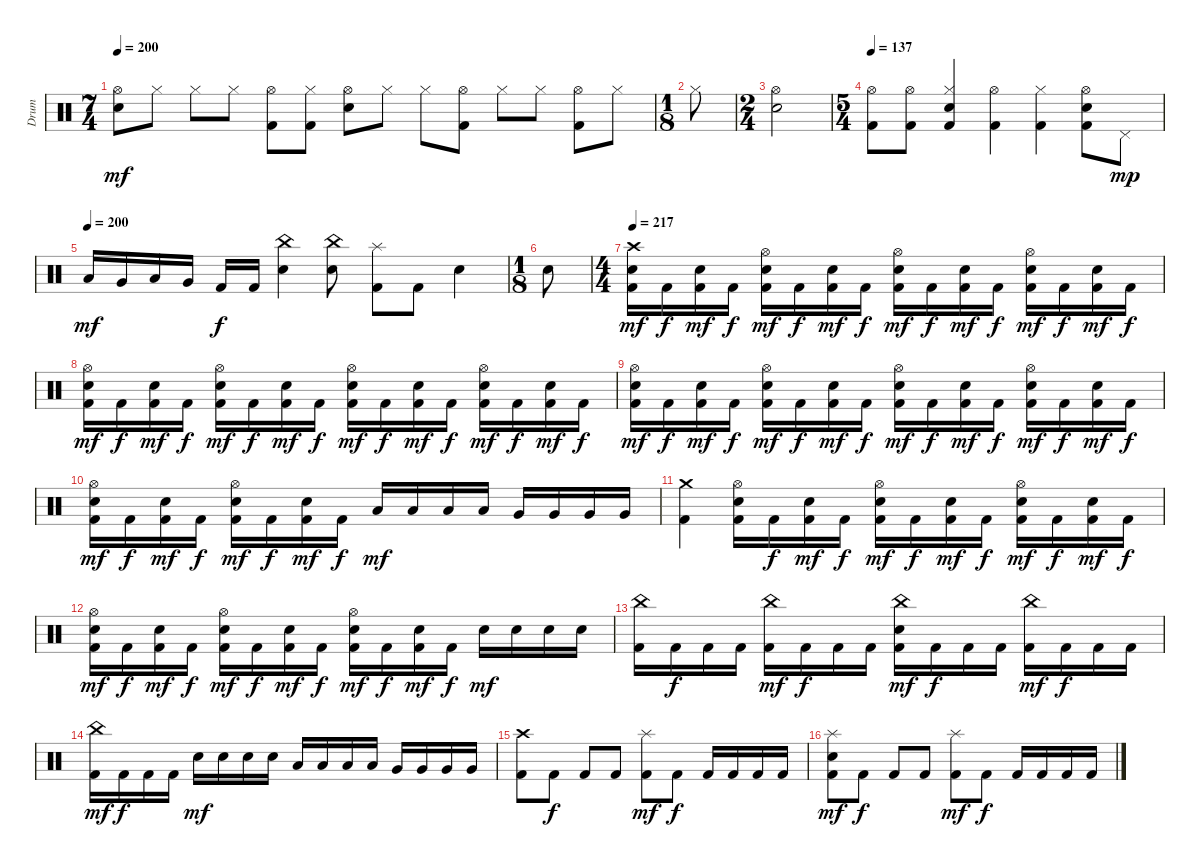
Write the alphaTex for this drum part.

\track ("Drum" "Drum") {instrument percussion}
\staff {score}
\articulation defaults
\ts (7 4)
\tempo 200
\clef neutral
\ks c
("Hi-Hat (open)" "Electric Snare (hit)").8{dy mf} "Hi-Hat (closed)".8 "Hi-Hat (closed)".8 "Hi-Hat (closed)".8 ("Hi-Hat (open)" "Kick (hit) 2").8 ("Hi-Hat (closed)" "Kick (hit) 2").8 ("Hi-Hat (open)" "Electric Snare (hit)").8 "Hi-Hat (closed)".8 "Hi-Hat (closed)".8 ("Hi-Hat (open)" "Kick (hit) 2").8 "Hi-Hat (closed)".8 "Hi-Hat (closed)".8 ("Hi-Hat (open)" "Kick (hit) 2").8 "Hi-Hat (closed)".8 |
\ts (1 8)
"Hi-Hat (closed)".8 |
\ts (2 4)
("Hi-Hat (open)" "Electric Snare (hit)").2 |
\ts (5 4)
\tempo 137
("Hi-Hat (open)" "Kick (hit) 2").8 ("Hi-Hat (open)" "Kick (hit) 2").8 ("Hi-Hat (closed)" "Electric Snare (hit)" "Kick (hit) 2").4 ("Hi-Hat (open)" "Kick (hit) 2").4 ("Hi-Hat (closed)" "Kick (hit) 2").4 ("Hi-Hat (open)" "Electric Snare (hit)" "Kick (hit) 2").8 "Pedal Hi-Hat (hit)".8{dy mp} |
\tempo (200)
"Low Tom (hit)".16{dy mf} "Very Low Tom (hit)".16 "Low Tom (hit)".16 "Very Low Tom (hit)".16 "Kick (hit) 2".16{dy f} "Kick (hit) 2".16 ("China (hit)" "Electric Snare (hit)").4 ("China (hit)" "Electric Snare (hit)").8 ("Splash (hit)" "Kick (hit) 2").8 "Kick (hit) 2".8 "Electric Snare (hit)".4 |
\ts (1 8)
"Electric Snare (hit)".8 |
\ts (4 4)
\tempo 217
("Crash high (hit)" "Electric Snare (hit)" "Kick (hit) 2").16{dy mf} "Kick (hit) 2".16{dy f} ("Electric Snare (hit)" "Kick (hit) 2").16{dy mf} "Kick (hit) 2".16{dy f} ("Hi-Hat (open)" "Electric Snare (hit)" "Kick (hit) 2").16{dy mf} "Kick (hit) 2".16{dy f} ("Electric Snare (hit)" "Kick (hit) 2").16{dy mf} "Kick (hit) 2".16{dy f} ("Hi-Hat (open)" "Electric Snare (hit)" "Kick (hit) 2").16{dy mf} "Kick (hit) 2".16{dy f} ("Electric Snare (hit)" "Kick (hit) 2").16{dy mf} "Kick (hit) 2".16{dy f} ("Hi-Hat (open)" "Electric Snare (hit)" "Kick (hit) 2").16{dy mf} "Kick (hit) 2".16{dy f} ("Electric Snare (hit)" "Kick (hit) 2").16{dy mf} "Kick (hit) 2".16{dy f} |
("Hi-Hat (open)" "Electric Snare (hit)" "Kick (hit) 2").16{dy mf} "Kick (hit) 2".16{dy f} ("Electric Snare (hit)" "Kick (hit) 2").16{dy mf} "Kick (hit) 2".16{dy f} ("Hi-Hat (open)" "Electric Snare (hit)" "Kick (hit) 2").16{dy mf} "Kick (hit) 2".16{dy f} ("Electric Snare (hit)" "Kick (hit) 2").16{dy mf} "Kick (hit) 2".16{dy f} ("Hi-Hat (open)" "Electric Snare (hit)" "Kick (hit) 2").16{dy mf} "Kick (hit) 2".16{dy f} ("Electric Snare (hit)" "Kick (hit) 2").16{dy mf} "Kick (hit) 2".16{dy f} ("Hi-Hat (open)" "Electric Snare (hit)" "Kick (hit) 2").16{dy mf} "Kick (hit) 2".16{dy f} ("Electric Snare (hit)" "Kick (hit) 2").16{dy mf} "Kick (hit) 2".16{dy f} |
("Hi-Hat (open)" "Electric Snare (hit)" "Kick (hit) 2").16{dy mf} "Kick (hit) 2".16{dy f} ("Electric Snare (hit)" "Kick (hit) 2").16{dy mf} "Kick (hit) 2".16{dy f} ("Hi-Hat (open)" "Electric Snare (hit)" "Kick (hit) 2").16{dy mf} "Kick (hit) 2".16{dy f} ("Electric Snare (hit)" "Kick (hit) 2").16{dy mf} "Kick (hit) 2".16{dy f} ("Hi-Hat (open)" "Electric Snare (hit)" "Kick (hit) 2").16{dy mf} "Kick (hit) 2".16{dy f} ("Electric Snare (hit)" "Kick (hit) 2").16{dy mf} "Kick (hit) 2".16{dy f} ("Hi-Hat (open)" "Electric Snare (hit)" "Kick (hit) 2").16{dy mf} "Kick (hit) 2".16{dy f} ("Electric Snare (hit)" "Kick (hit) 2").16{dy mf} "Kick (hit) 2".16{dy f} |
("Hi-Hat (open)" "Electric Snare (hit)" "Kick (hit) 2").16{dy mf} "Kick (hit) 2".16{dy f} ("Electric Snare (hit)" "Kick (hit) 2").16{dy mf} "Kick (hit) 2".16{dy f} ("Hi-Hat (open)" "Electric Snare (hit)" "Kick (hit) 2").16{dy mf} "Kick (hit) 2".16{dy f} ("Electric Snare (hit)" "Kick (hit) 2").16{dy mf} "Kick (hit) 2".16{dy f} "Low Tom (hit)".16{dy mf} "Low Tom (hit)".16 "Low Tom (hit)".16 "Low Tom (hit)".16 "Very Low Tom (hit)".16 "Very Low Tom (hit)".16 "Very Low Tom (hit)".16 "Very Low Tom (hit)".16 |
("Crash medium (hit)" "Kick (hit) 2").4 ("Hi-Hat (open)" "Electric Snare (hit)" "Kick (hit) 2").16 "Kick (hit) 2".16{dy f} ("Electric Snare (hit)" "Kick (hit) 2").16{dy mf} "Kick (hit) 2".16{dy f} ("Hi-Hat (open)" "Electric Snare (hit)" "Kick (hit) 2").16{dy mf} "Kick (hit) 2".16{dy f} ("Electric Snare (hit)" "Kick (hit) 2").16{dy mf} "Kick (hit) 2".16{dy f} ("Hi-Hat (open)" "Electric Snare (hit)" "Kick (hit) 2").16{dy mf} "Kick (hit) 2".16{dy f} ("Electric Snare (hit)" "Kick (hit) 2").16{dy mf} "Kick (hit) 2".16{dy f} |
("Hi-Hat (open)" "Electric Snare (hit)" "Kick (hit) 2").16{dy mf} "Kick (hit) 2".16{dy f} ("Electric Snare (hit)" "Kick (hit) 2").16{dy mf} "Kick (hit) 2".16{dy f} ("Hi-Hat (open)" "Electric Snare (hit)" "Kick (hit) 2").16{dy mf} "Kick (hit) 2".16{dy f} ("Electric Snare (hit)" "Kick (hit) 2").16{dy mf} "Kick (hit) 2".16{dy f} ("Hi-Hat (open)" "Electric Snare (hit)" "Kick (hit) 2").16{dy mf} "Kick (hit) 2".16{dy f} ("Electric Snare (hit)" "Kick (hit) 2").16{dy mf} "Kick (hit) 2".16{dy f} "Electric Snare (hit)".16{dy mf} "Electric Snare (hit)".16 "Electric Snare (hit)".16 "Electric Snare (hit)".16 |
("China (hit)" "Kick (hit) 2").16 "Kick (hit) 2".16{dy f} "Kick (hit) 2".16 "Kick (hit) 2".16 ("China (hit)" "Kick (hit) 2").16{dy mf} "Kick (hit) 2".16{dy f} "Kick (hit) 2".16 "Kick (hit) 2".16 ("China (hit)" "Electric Snare (hit)" "Kick (hit) 2").16{dy mf} "Kick (hit) 2".16{dy f} "Kick (hit) 2".16 "Kick (hit) 2".16 ("China (hit)" "Kick (hit) 2").16{dy mf} "Kick (hit) 2".16{dy f} "Kick (hit) 2".16 "Kick (hit) 2".16 |
("China (hit)" "Kick (hit) 2").16{dy mf} "Kick (hit) 2".16{dy f} "Kick (hit) 2".16 "Kick (hit) 2".16 "Electric Snare (hit)".16{dy mf} "Electric Snare (hit)".16 "Electric Snare (hit)".16 "Electric Snare (hit)".16 "Low Tom (hit)".16 "Low Tom (hit)".16 "Low Tom (hit)".16 "Low Tom (hit)".16 "Very Low Tom (hit)".16 "Very Low Tom (hit)".16 "Very Low Tom (hit)".16 "Very Low Tom (hit)".16 |
("Crash high (hit)" "Kick (hit) 2").8 "Kick (hit) 2".8{dy f} "Kick (hit) 2".8 "Kick (hit) 2".8 ("Splash (hit)" "Kick (hit) 2").8{dy mf} "Kick (hit) 2".8{dy f} "Kick (hit) 2".16 "Kick (hit) 2".16 "Kick (hit) 2".16 "Kick (hit) 2".16 |
("Splash (hit)" "Electric Snare (hit)" "Kick (hit) 2").8{dy mf} "Kick (hit) 2".8{dy f} "Kick (hit) 2".8 "Kick (hit) 2".8 ("Splash (hit)" "Kick (hit) 2").8{dy mf} "Kick (hit) 2".8{dy f} "Kick (hit) 2".16 "Kick (hit) 2".16 "Kick (hit) 2".16 "Kick (hit) 2".16
